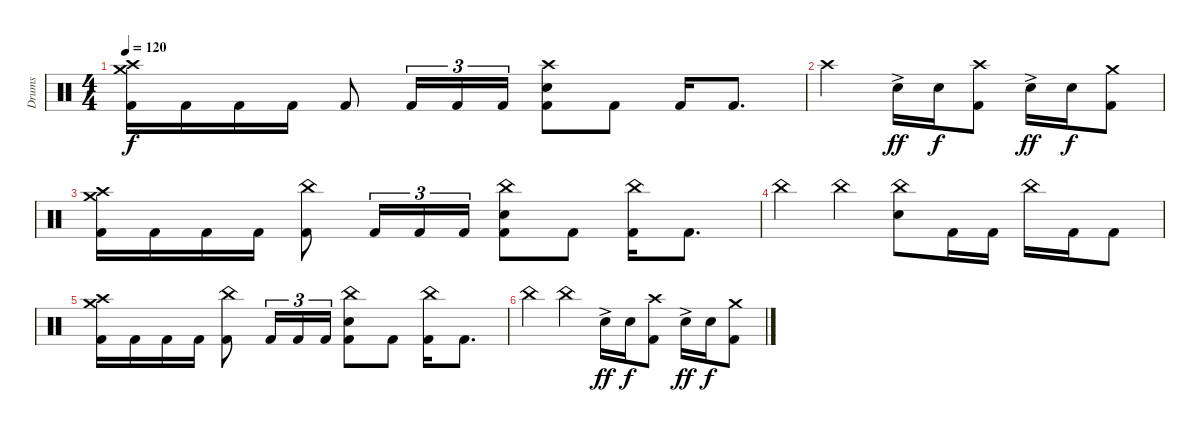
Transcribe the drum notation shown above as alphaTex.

\track ("Drums" "Drums") {instrument percussion}
\staff {score}
\articulation defaults
\ts (4 4)
\tempo 120
\clef neutral
\ks c
("Crash medium (hit)" "Crash high (hit)" "Kick (hit) 2").16{dy f} "Kick (hit) 2".16 "Kick (hit) 2".16 "Kick (hit) 2".16 "Kick (hit) 2".8 "Kick (hit) 2".16{tu (3 2)} "Kick (hit) 2".16{tu (3 2)} "Kick (hit) 2".16{tu (3 2)} ("Crash high (hit)" "Electric Snare (hit)" "Kick (hit) 2").8 "Kick (hit) 2".8 "Kick (hit) 2".16 "Kick (hit) 2".8{d} |
"Crash high (hit)".2 "Electric Snare (hit)"{ac}.16{dy ff} "Electric Snare (hit)".16{dy f} ("Crash high (hit)" "Kick (hit) 2").8 "Electric Snare (hit)"{ac}.16{dy ff} "Electric Snare (hit)".16{dy f} ("Crash medium (hit)" "Kick (hit) 2").8 |
("Crash medium (hit)" "Crash high (hit)" "Kick (hit) 2").16 "Kick (hit) 2".16 "Kick (hit) 2".16 "Kick (hit) 2".16 ("China (hit)" "Kick (hit) 2").8 "Kick (hit) 2".16{tu (3 2)} "Kick (hit) 2".16{tu (3 2)} "Kick (hit) 2".16{tu (3 2)} ("China (hit)" "Electric Snare (hit)" "Kick (hit) 2").8 "Kick (hit) 2".8 ("China (hit)" "Kick (hit) 2").16 "Kick (hit) 2".8{d} |
"China (hit)".4 "China (hit)".4 ("China (hit)" "Electric Snare (hit)").8 "Kick (hit) 2".16 "Kick (hit) 2".16 "China (hit)".16 "Kick (hit) 2".16 "Kick (hit) 2".8 |
("Crash medium (hit)" "Crash high (hit)" "Kick (hit) 2").16 "Kick (hit) 2".16 "Kick (hit) 2".16 "Kick (hit) 2".16 ("China (hit)" "Kick (hit) 2").8 "Kick (hit) 2".16{tu (3 2)} "Kick (hit) 2".16{tu (3 2)} "Kick (hit) 2".16{tu (3 2)} ("China (hit)" "Electric Snare (hit)" "Kick (hit) 2").8 "Kick (hit) 2".8 ("China (hit)" "Kick (hit) 2").16 "Kick (hit) 2".8{d} |
"China (hit)".4 "China (hit)".4 "Electric Snare (hit)"{ac}.16{dy ff} "Electric Snare (hit)".16{dy f} ("Crash high (hit)" "Kick (hit) 2").8 "Electric Snare (hit)"{ac}.16{dy ff} "Electric Snare (hit)".16{dy f} ("Crash medium (hit)" "Kick (hit) 2").8
